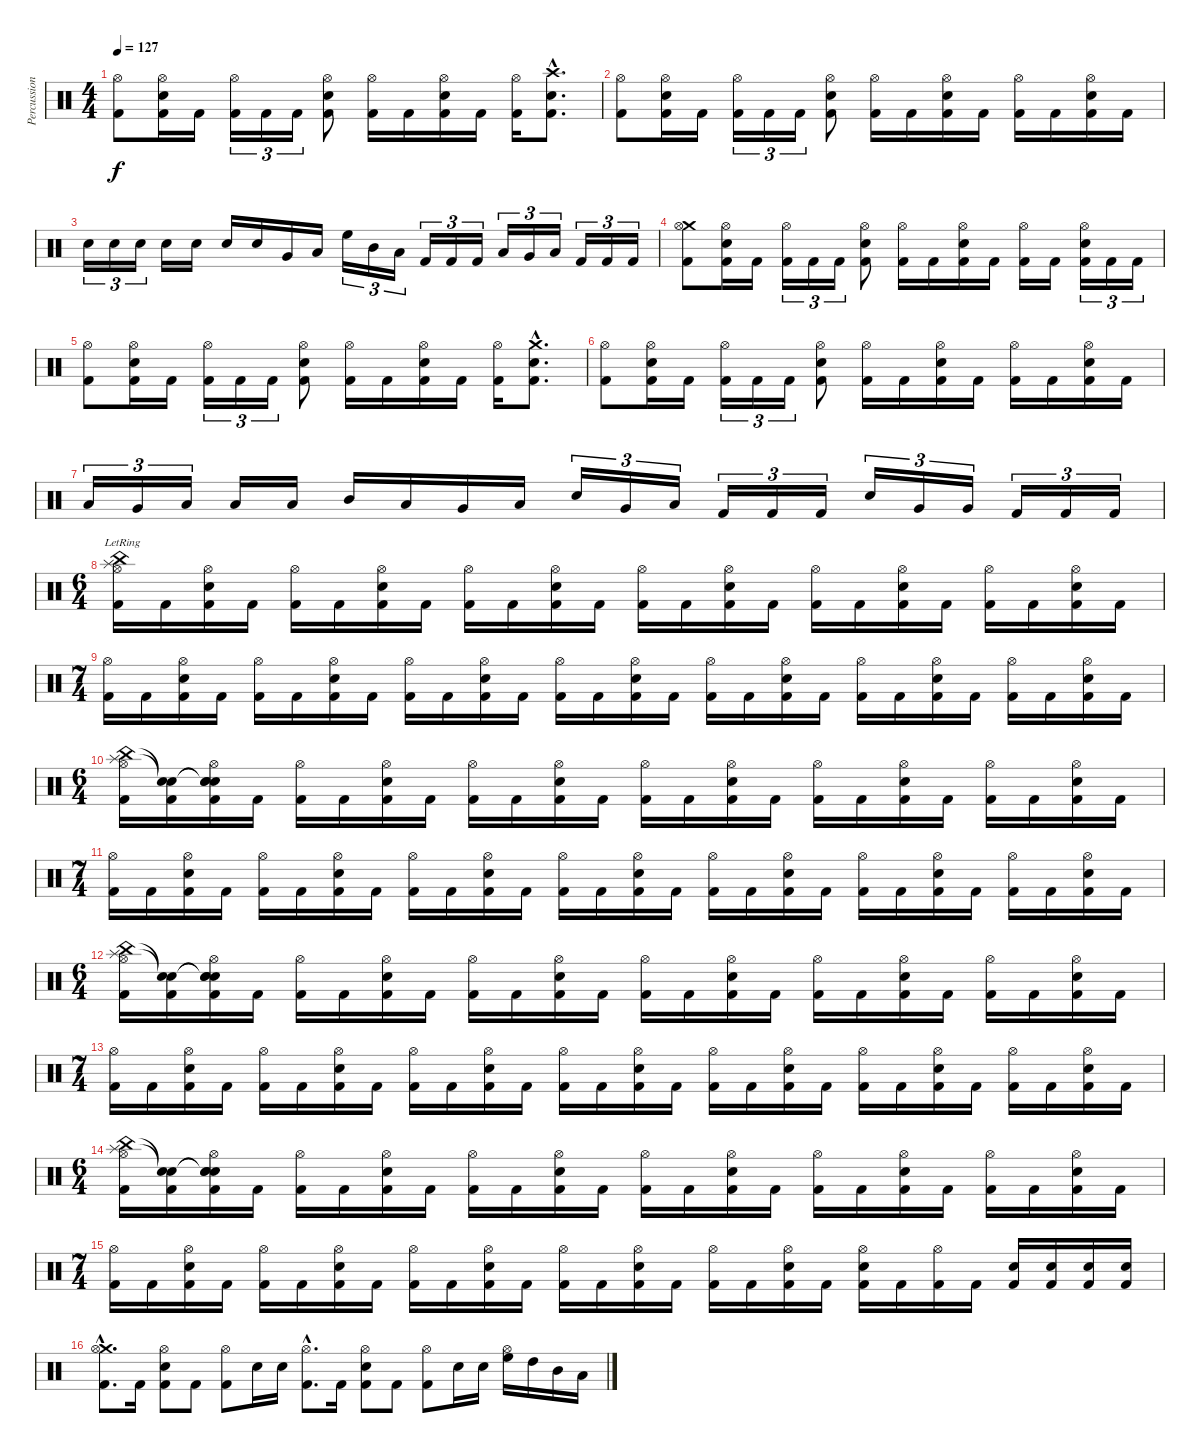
\track ("Percussion" "Percussion") {instrument percussion}
\staff {score}
\articulation defaults
\ts (4 4)
\tempo 127
\clef neutral
\ks c
("Hi-Hat (open)" "Kick (hit) 2").8{dy f} ("Hi-Hat (open)" "Electric Snare (hit)" "Kick (hit) 2").16 "Kick (hit) 2".16 ("Hi-Hat (open)" "Kick (hit) 2").16{tu (3 2)} "Kick (hit) 2".16{tu (3 2)} "Kick (hit) 2".16{tu (3 2)} ("Hi-Hat (open)" "Electric Snare (hit)" "Kick (hit) 2").8 ("Hi-Hat (open)" "Kick (hit) 2").16 "Kick (hit) 2".16 ("Hi-Hat (open)" "Electric Snare (hit)" "Kick (hit) 2").16 "Kick (hit) 2".16 ("Hi-Hat (open)" "Kick (hit) 2").16 ("Crash high (hit)"{hac} "Electric Snare (hit)"{hac} "Kick (hit) 2"{hac}).8{d} |
("Hi-Hat (open)" "Kick (hit) 2").8 ("Hi-Hat (open)" "Electric Snare (hit)" "Kick (hit) 2").16 "Kick (hit) 2".16 ("Hi-Hat (open)" "Kick (hit) 2").16{tu (3 2)} "Kick (hit) 2".16{tu (3 2)} "Kick (hit) 2".16{tu (3 2)} ("Hi-Hat (open)" "Electric Snare (hit)" "Kick (hit) 2").8 ("Hi-Hat (open)" "Kick (hit) 2").16 "Kick (hit) 2".16 ("Hi-Hat (open)" "Electric Snare (hit)" "Kick (hit) 2").16 "Kick (hit) 2".16 ("Hi-Hat (open)" "Kick (hit) 2").16 "Kick (hit) 2".16 ("Hi-Hat (open)" "Electric Snare (hit)" "Kick (hit) 2").16 "Kick (hit) 2".16 |
"Electric Snare (hit)".16{tu (3 2)} "Electric Snare (hit)".16{tu (3 2)} "Electric Snare (hit)".16{tu (3 2)} "Electric Snare (hit)".16 "Electric Snare (hit)".16 "Electric Snare (hit)".16 "Electric Snare (hit)".16 "Very Low Tom (hit)".16 "Low Floor Tom (hit)".16 "High Floor Tom (hit)".16{tu (3 2)} "Mid Tom (hit)".16{tu (3 2)} "Low Tom (hit)".16{tu (3 2)} "Kick (hit) 2".16{tu (3 2)} "Kick (hit) 2".16{tu (3 2)} "Kick (hit) 2".16{tu (3 2)} "Low Tom (hit)".16{tu (3 2)} "Very Low Tom (hit)".16{tu (3 2)} "Low Floor Tom (hit)".16{tu (3 2)} "Kick (hit) 2".16{tu (3 2)} "Kick (hit) 2".16{tu (3 2)} "Kick (hit) 2".16{tu (3 2)} |
("Crash medium (hit)" "Hi-Hat (open)" "Kick (hit) 2").8 ("Hi-Hat (open)" "Electric Snare (hit)" "Kick (hit) 2").16 "Kick (hit) 2".16 ("Hi-Hat (open)" "Kick (hit) 2").16{tu (3 2)} "Kick (hit) 2".16{tu (3 2)} "Kick (hit) 2".16{tu (3 2)} ("Hi-Hat (open)" "Electric Snare (hit)" "Kick (hit) 2").8 ("Hi-Hat (open)" "Kick (hit) 2").16 "Kick (hit) 2".16 ("Hi-Hat (open)" "Electric Snare (hit)" "Kick (hit) 2").16 "Kick (hit) 2".16 ("Hi-Hat (open)" "Kick (hit) 2").16 "Kick (hit) 2".16 ("Hi-Hat (open)" "Electric Snare (hit)" "Kick (hit) 2").16{tu (3 2)} "Kick (hit) 2".16{tu (3 2)} "Kick (hit) 2".16{tu (3 2)} |
("Hi-Hat (open)" "Kick (hit) 2").8 ("Hi-Hat (open)" "Electric Snare (hit)" "Kick (hit) 2").16 "Kick (hit) 2".16 ("Hi-Hat (open)" "Kick (hit) 2").16{tu (3 2)} "Kick (hit) 2".16{tu (3 2)} "Kick (hit) 2".16{tu (3 2)} ("Hi-Hat (open)" "Electric Snare (hit)" "Kick (hit) 2").8 ("Hi-Hat (open)" "Kick (hit) 2").16 "Kick (hit) 2".16 ("Hi-Hat (open)" "Electric Snare (hit)" "Kick (hit) 2").16 "Kick (hit) 2".16 ("Hi-Hat (open)" "Kick (hit) 2").16 ("Crash medium (hit)"{hac} "Electric Snare (hit)"{hac} "Kick (hit) 2"{hac}).8{d} |
("Hi-Hat (open)" "Kick (hit) 2").8 ("Hi-Hat (open)" "Electric Snare (hit)" "Kick (hit) 2").16 "Kick (hit) 2".16 ("Hi-Hat (open)" "Kick (hit) 2").16{tu (3 2)} "Kick (hit) 2".16{tu (3 2)} "Kick (hit) 2".16{tu (3 2)} ("Hi-Hat (open)" "Electric Snare (hit)" "Kick (hit) 2").8 ("Hi-Hat (open)" "Kick (hit) 2").16 "Kick (hit) 2".16 ("Hi-Hat (open)" "Electric Snare (hit)" "Kick (hit) 2").16 "Kick (hit) 2".16 ("Hi-Hat (open)" "Kick (hit) 2").16 "Kick (hit) 2".16 ("Hi-Hat (open)" "Electric Snare (hit)" "Kick (hit) 2").16 "Kick (hit) 2".16 |
"Low Tom (hit)".16{tu (3 2)} "Very Low Tom (hit)".16{tu (3 2)} "Low Floor Tom (hit)".16{tu (3 2)} "Low Floor Tom (hit)".16 "Low Floor Tom (hit)".16 "Mid Tom (hit)".16 "Low Tom (hit)".16 "Very Low Tom (hit)".16 "Low Floor Tom (hit)".16 "Electric Snare (hit)".16{tu (3 2)} "Very Low Tom (hit)".16{tu (3 2)} "Low Floor Tom (hit)".16{tu (3 2)} "Kick (hit) 2".16{tu (3 2)} "Kick (hit) 2".16{tu (3 2)} "Kick (hit) 2".16{tu (3 2)} "Electric Snare (hit)".16{tu (3 2)} "Very Low Tom (hit)".16{tu (3 2)} "Very Low Tom (hit)".16{tu (3 2)} "Kick (hit) 2".16{tu (3 2)} "Kick (hit) 2".16{tu (3 2)} "Kick (hit) 2".16{tu (3 2)} |
\ts (6 4)
("China (hit)"{lr} "Splash (hit)"{lr} "Hi-Hat (open)" "Kick (hit) 2").16 "Kick (hit) 2".16 ("Hi-Hat (open)" "Electric Snare (hit)" "Kick (hit) 2").16 "Kick (hit) 2".16 ("Hi-Hat (open)" "Kick (hit) 2").16 "Kick (hit) 2".16 ("Hi-Hat (open)" "Electric Snare (hit)" "Kick (hit) 2").16 "Kick (hit) 2".16 ("Hi-Hat (open)" "Kick (hit) 2").16 "Kick (hit) 2".16 ("Hi-Hat (open)" "Electric Snare (hit)" "Kick (hit) 2").16 "Kick (hit) 2".16 ("Hi-Hat (open)" "Kick (hit) 2").16 "Kick (hit) 2".16 ("Hi-Hat (open)" "Electric Snare (hit)" "Kick (hit) 2").16 "Kick (hit) 2".16 ("Hi-Hat (open)" "Kick (hit) 2").16 "Kick (hit) 2".16 ("Hi-Hat (open)" "Electric Snare (hit)" "Kick (hit) 2").16 "Kick (hit) 2".16 ("Hi-Hat (open)" "Kick (hit) 2").16 "Kick (hit) 2".16 ("Hi-Hat (open)" "Electric Snare (hit)" "Kick (hit) 2").16 "Kick (hit) 2".16 |
\ts (7 4)
("Hi-Hat (open)" "Kick (hit) 2").16 "Kick (hit) 2".16 ("Hi-Hat (open)" "Electric Snare (hit)" "Kick (hit) 2").16 "Kick (hit) 2".16 ("Hi-Hat (open)" "Kick (hit) 2").16 "Kick (hit) 2".16 ("Hi-Hat (open)" "Electric Snare (hit)" "Kick (hit) 2").16 "Kick (hit) 2".16 ("Hi-Hat (open)" "Kick (hit) 2").16 "Kick (hit) 2".16 ("Hi-Hat (open)" "Electric Snare (hit)" "Kick (hit) 2").16 "Kick (hit) 2".16 ("Hi-Hat (open)" "Kick (hit) 2").16 "Kick (hit) 2".16 ("Hi-Hat (open)" "Electric Snare (hit)" "Kick (hit) 2").16 "Kick (hit) 2".16 ("Hi-Hat (open)" "Kick (hit) 2").16 "Kick (hit) 2".16 ("Hi-Hat (open)" "Electric Snare (hit)" "Kick (hit) 2").16 "Kick (hit) 2".16 ("Hi-Hat (open)" "Kick (hit) 2").16 "Kick (hit) 2".16 ("Hi-Hat (open)" "Electric Snare (hit)" "Kick (hit) 2").16 "Kick (hit) 2".16 ("Hi-Hat (open)" "Kick (hit) 2").16 "Kick (hit) 2".16 ("Hi-Hat (open)" "Electric Snare (hit)" "Kick (hit) 2").16 "Kick (hit) 2".16 |
\ts (6 4)
("China (hit)" "Splash (hit)" "Hi-Hat (open)" "Kick (hit) 2").16 ("Snare (hit)"{t} "Snare (hit)"{t} "Kick (hit) 2").16 ("Snare (hit)"{t} "Snare (hit)"{t} "Hi-Hat (open)" "Electric Snare (hit)" "Kick (hit) 2").16 "Kick (hit) 2".16 ("Hi-Hat (open)" "Kick (hit) 2").16 "Kick (hit) 2".16 ("Hi-Hat (open)" "Electric Snare (hit)" "Kick (hit) 2").16 "Kick (hit) 2".16 ("Hi-Hat (open)" "Kick (hit) 2").16 "Kick (hit) 2".16 ("Hi-Hat (open)" "Electric Snare (hit)" "Kick (hit) 2").16 "Kick (hit) 2".16 ("Hi-Hat (open)" "Kick (hit) 2").16 "Kick (hit) 2".16 ("Hi-Hat (open)" "Electric Snare (hit)" "Kick (hit) 2").16 "Kick (hit) 2".16 ("Hi-Hat (open)" "Kick (hit) 2").16 "Kick (hit) 2".16 ("Hi-Hat (open)" "Electric Snare (hit)" "Kick (hit) 2").16 "Kick (hit) 2".16 ("Hi-Hat (open)" "Kick (hit) 2").16 "Kick (hit) 2".16 ("Hi-Hat (open)" "Electric Snare (hit)" "Kick (hit) 2").16 "Kick (hit) 2".16 |
\ts (7 4)
("Hi-Hat (open)" "Kick (hit) 2").16 "Kick (hit) 2".16 ("Hi-Hat (open)" "Electric Snare (hit)" "Kick (hit) 2").16 "Kick (hit) 2".16 ("Hi-Hat (open)" "Kick (hit) 2").16 "Kick (hit) 2".16 ("Hi-Hat (open)" "Electric Snare (hit)" "Kick (hit) 2").16 "Kick (hit) 2".16 ("Hi-Hat (open)" "Kick (hit) 2").16 "Kick (hit) 2".16 ("Hi-Hat (open)" "Electric Snare (hit)" "Kick (hit) 2").16 "Kick (hit) 2".16 ("Hi-Hat (open)" "Kick (hit) 2").16 "Kick (hit) 2".16 ("Hi-Hat (open)" "Electric Snare (hit)" "Kick (hit) 2").16 "Kick (hit) 2".16 ("Hi-Hat (open)" "Kick (hit) 2").16 "Kick (hit) 2".16 ("Hi-Hat (open)" "Electric Snare (hit)" "Kick (hit) 2").16 "Kick (hit) 2".16 ("Hi-Hat (open)" "Kick (hit) 2").16 "Kick (hit) 2".16 ("Hi-Hat (open)" "Electric Snare (hit)" "Kick (hit) 2").16 "Kick (hit) 2".16 ("Hi-Hat (open)" "Kick (hit) 2").16 "Kick (hit) 2".16 ("Hi-Hat (open)" "Electric Snare (hit)" "Kick (hit) 2").16 "Kick (hit) 2".16 |
\ts (6 4)
("Splash (hit)" "China (hit)" "Hi-Hat (open)" "Kick (hit) 2").16 ("Snare (hit)"{t} "Snare (hit)"{t} "Kick (hit) 2").16 ("Snare (hit)"{t} "Snare (hit)"{t} "Hi-Hat (open)" "Electric Snare (hit)" "Kick (hit) 2").16 "Kick (hit) 2".16 ("Hi-Hat (open)" "Kick (hit) 2").16 "Kick (hit) 2".16 ("Hi-Hat (open)" "Electric Snare (hit)" "Kick (hit) 2").16 "Kick (hit) 2".16 ("Hi-Hat (open)" "Kick (hit) 2").16 "Kick (hit) 2".16 ("Hi-Hat (open)" "Electric Snare (hit)" "Kick (hit) 2").16 "Kick (hit) 2".16 ("Hi-Hat (open)" "Kick (hit) 2").16 "Kick (hit) 2".16 ("Hi-Hat (open)" "Electric Snare (hit)" "Kick (hit) 2").16 "Kick (hit) 2".16 ("Hi-Hat (open)" "Kick (hit) 2").16 "Kick (hit) 2".16 ("Hi-Hat (open)" "Electric Snare (hit)" "Kick (hit) 2").16 "Kick (hit) 2".16 ("Hi-Hat (open)" "Kick (hit) 2").16 "Kick (hit) 2".16 ("Hi-Hat (open)" "Electric Snare (hit)" "Kick (hit) 2").16 "Kick (hit) 2".16 |
\ts (7 4)
("Hi-Hat (open)" "Kick (hit) 2").16 "Kick (hit) 2".16 ("Hi-Hat (open)" "Electric Snare (hit)" "Kick (hit) 2").16 "Kick (hit) 2".16 ("Hi-Hat (open)" "Kick (hit) 2").16 "Kick (hit) 2".16 ("Hi-Hat (open)" "Electric Snare (hit)" "Kick (hit) 2").16 "Kick (hit) 2".16 ("Hi-Hat (open)" "Kick (hit) 2").16 "Kick (hit) 2".16 ("Hi-Hat (open)" "Electric Snare (hit)" "Kick (hit) 2").16 "Kick (hit) 2".16 ("Hi-Hat (open)" "Kick (hit) 2").16 "Kick (hit) 2".16 ("Hi-Hat (open)" "Electric Snare (hit)" "Kick (hit) 2").16 "Kick (hit) 2".16 ("Hi-Hat (open)" "Kick (hit) 2").16 "Kick (hit) 2".16 ("Hi-Hat (open)" "Electric Snare (hit)" "Kick (hit) 2").16 "Kick (hit) 2".16 ("Hi-Hat (open)" "Kick (hit) 2").16 "Kick (hit) 2".16 ("Hi-Hat (open)" "Electric Snare (hit)" "Kick (hit) 2").16 "Kick (hit) 2".16 ("Hi-Hat (open)" "Kick (hit) 2").16 "Kick (hit) 2".16 ("Hi-Hat (open)" "Electric Snare (hit)" "Kick (hit) 2").16 "Kick (hit) 2".16 |
\ts (6 4)
("Splash (hit)" "China (hit)" "Hi-Hat (open)" "Kick (hit) 2").16 ("Snare (hit)"{t} "Snare (hit)"{t} "Kick (hit) 2").16 ("Snare (hit)"{t} "Snare (hit)"{t} "Hi-Hat (open)" "Electric Snare (hit)" "Kick (hit) 2").16 "Kick (hit) 2".16 ("Hi-Hat (open)" "Kick (hit) 2").16 "Kick (hit) 2".16 ("Hi-Hat (open)" "Electric Snare (hit)" "Kick (hit) 2").16 "Kick (hit) 2".16 ("Hi-Hat (open)" "Kick (hit) 2").16 "Kick (hit) 2".16 ("Hi-Hat (open)" "Electric Snare (hit)" "Kick (hit) 2").16 "Kick (hit) 2".16 ("Hi-Hat (open)" "Kick (hit) 2").16 "Kick (hit) 2".16 ("Hi-Hat (open)" "Electric Snare (hit)" "Kick (hit) 2").16 "Kick (hit) 2".16 ("Hi-Hat (open)" "Kick (hit) 2").16 "Kick (hit) 2".16 ("Hi-Hat (open)" "Electric Snare (hit)" "Kick (hit) 2").16 "Kick (hit) 2".16 ("Hi-Hat (open)" "Kick (hit) 2").16 "Kick (hit) 2".16 ("Hi-Hat (open)" "Electric Snare (hit)" "Kick (hit) 2").16 "Kick (hit) 2".16 |
\ts (7 4)
("Hi-Hat (open)" "Kick (hit) 2").16 "Kick (hit) 2".16 ("Hi-Hat (open)" "Electric Snare (hit)" "Kick (hit) 2").16 "Kick (hit) 2".16 ("Hi-Hat (open)" "Kick (hit) 2").16 "Kick (hit) 2".16 ("Hi-Hat (open)" "Electric Snare (hit)" "Kick (hit) 2").16 "Kick (hit) 2".16 ("Hi-Hat (open)" "Kick (hit) 2").16 "Kick (hit) 2".16 ("Hi-Hat (open)" "Electric Snare (hit)" "Kick (hit) 2").16 "Kick (hit) 2".16 ("Hi-Hat (open)" "Kick (hit) 2").16 "Kick (hit) 2".16 ("Hi-Hat (open)" "Electric Snare (hit)" "Kick (hit) 2").16 "Kick (hit) 2".16 ("Hi-Hat (open)" "Kick (hit) 2").16 "Kick (hit) 2".16 ("Hi-Hat (open)" "Electric Snare (hit)" "Kick (hit) 2").16 "Kick (hit) 2".16 ("Hi-Hat (open)" "Electric Snare (hit)" "Kick (hit) 2").16 "Kick (hit) 2".16 ("Hi-Hat (open)" "Kick (hit) 2").16 "Kick (hit) 2".16 ("Electric Snare (hit)" "Kick (hit) 2").16 ("Electric Snare (hit)" "Kick (hit) 2").16 ("Electric Snare (hit)" "Kick (hit) 2").16 ("Electric Snare (hit)" "Kick (hit) 2").16 |
("Crash medium (hit)"{hac} "Hi-Hat (open)"{hac} "Kick (hit) 2"{hac}).8{d} "Kick (hit) 2".16 ("Hi-Hat (open)" "Electric Snare (hit)" "Kick (hit) 2").8 "Kick (hit) 2".8 ("Hi-Hat (open)" "Kick (hit) 2").8 "Electric Snare (hit)".16 "Electric Snare (hit)".16 ("Hi-Hat (open)"{hac} "Kick (hit) 2"{hac}).8{d} "Kick (hit) 2".16 ("Hi-Hat (open)" "Electric Snare (hit)" "Kick (hit) 2").8 "Kick (hit) 2".8 ("Hi-Hat (open)" "Kick (hit) 2").8 "Electric Snare (hit)".16 "Electric Snare (hit)".16 ("Hi-Hat (open)" "High Floor Tom (hit)").16 "High Tom (hit)".16 "Mid Tom (hit)".16 "Low Tom (hit)".16
